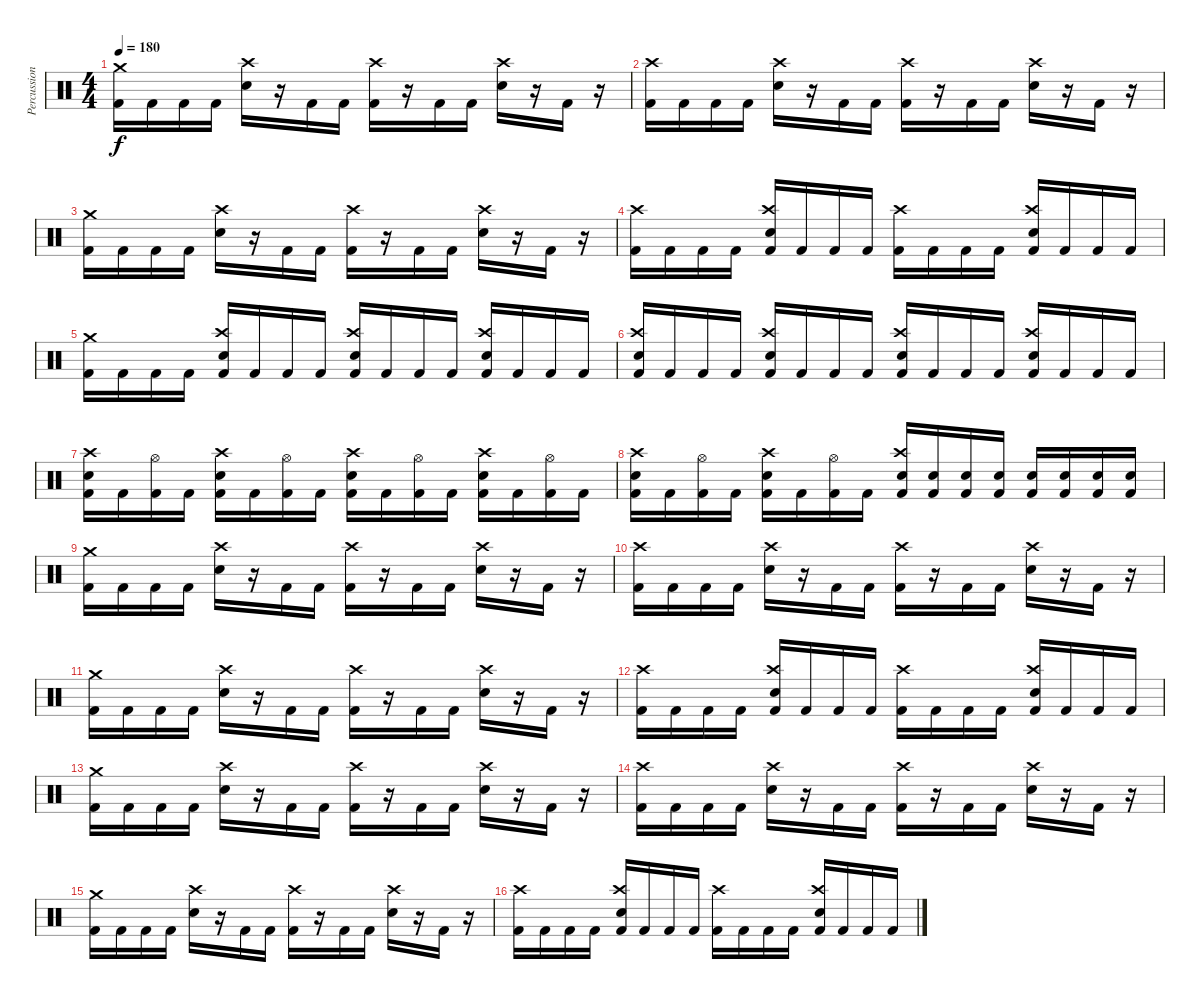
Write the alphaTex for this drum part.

\track ("Percussions" "Percussion") {instrument percussion}
\staff {score}
\articulation defaults
\ts (4 4)
\tempo 180
\clef neutral
\ks c
("Crash medium (hit)" "Kick (hit) 2").16{dy f} "Kick (hit) 2".16 "Kick (hit) 2".16 "Kick (hit) 2".16 ("Crash high (hit)" "Snare (hit) 2").16 r.16 "Kick (hit) 2".16 "Kick (hit) 2".16 ("Crash high (hit)" "Kick (hit) 2").16 r.16 "Kick (hit) 2".16 "Kick (hit) 2".16 ("Crash high (hit)" "Snare (hit) 2").16 r.16 "Kick (hit) 2".16 r.16 |
("Crash high (hit)" "Kick (hit) 2").16 "Kick (hit) 2".16 "Kick (hit) 2".16 "Kick (hit) 2".16 ("Crash high (hit)" "Snare (hit) 2").16 r.16 "Kick (hit) 2".16 "Kick (hit) 2".16 ("Crash high (hit)" "Kick (hit) 2").16 r.16 "Kick (hit) 2".16 "Kick (hit) 2".16 ("Crash high (hit)" "Snare (hit) 2").16 r.16 "Kick (hit) 2".16 r.16 |
("Crash medium (hit)" "Kick (hit) 2").16 "Kick (hit) 2".16 "Kick (hit) 2".16 "Kick (hit) 2".16 ("Crash high (hit)" "Snare (hit) 2").16 r.16 "Kick (hit) 2".16 "Kick (hit) 2".16 ("Crash high (hit)" "Kick (hit) 2").16 r.16 "Kick (hit) 2".16 "Kick (hit) 2".16 ("Crash high (hit)" "Snare (hit) 2").16 r.16 "Kick (hit) 2".16 r.16 |
("Crash high (hit)" "Kick (hit) 2").16 "Kick (hit) 2".16 "Kick (hit) 2".16 "Kick (hit) 2".16 ("Crash high (hit)" "Snare (hit) 2" "Kick (hit) 2").16 "Kick (hit) 2".16 "Kick (hit) 2".16 "Kick (hit) 2".16 ("Crash high (hit)" "Kick (hit) 2").16 "Kick (hit) 2".16 "Kick (hit) 2".16 "Kick (hit) 2".16 ("Crash high (hit)" "Snare (hit) 2" "Kick (hit) 2").16 "Kick (hit) 2".16 "Kick (hit) 2".16 "Kick (hit) 2".16 |
("Crash medium (hit)" "Kick (hit) 2").16 "Kick (hit) 2".16 "Kick (hit) 2".16 "Kick (hit) 2".16 ("Crash high (hit)" "Snare (hit) 2" "Kick (hit) 2").16 "Kick (hit) 2".16 "Kick (hit) 2".16 "Kick (hit) 2".16 ("Crash high (hit)" "Snare (hit) 2" "Kick (hit) 2").16 "Kick (hit) 2".16 "Kick (hit) 2".16 "Kick (hit) 2".16 ("Crash high (hit)" "Snare (hit) 2" "Kick (hit) 2").16 "Kick (hit) 2".16 "Kick (hit) 2".16 "Kick (hit) 2".16 |
("Crash high (hit)" "Snare (hit) 2" "Kick (hit) 2").16 "Kick (hit) 2".16 "Kick (hit) 2".16 "Kick (hit) 2".16 ("Crash high (hit)" "Snare (hit) 2" "Kick (hit) 2").16 "Kick (hit) 2".16 "Kick (hit) 2".16 "Kick (hit) 2".16 ("Crash high (hit)" "Snare (hit) 2" "Kick (hit) 2").16 "Kick (hit) 2".16 "Kick (hit) 2".16 "Kick (hit) 2".16 ("Crash high (hit)" "Snare (hit) 2" "Kick (hit) 2").16 "Kick (hit) 2".16 "Kick (hit) 2".16 "Kick (hit) 2".16 |
("Crash high (hit)" "Snare (hit) 2" "Kick (hit) 2").16 "Kick (hit) 2".16 ("Hi-Hat (open)" "Kick (hit) 2").16 "Kick (hit) 2".16 ("Crash high (hit)" "Snare (hit) 2" "Kick (hit) 2").16 "Kick (hit) 2".16 ("Hi-Hat (open)" "Kick (hit) 2").16 "Kick (hit) 2".16 ("Crash high (hit)" "Snare (hit) 2" "Kick (hit) 2").16 "Kick (hit) 2".16 ("Hi-Hat (open)" "Kick (hit) 2").16 "Kick (hit) 2".16 ("Crash high (hit)" "Snare (hit) 2" "Kick (hit) 2").16 "Kick (hit) 2".16 ("Hi-Hat (open)" "Kick (hit) 2").16 "Kick (hit) 2".16 |
("Crash high (hit)" "Snare (hit) 2" "Kick (hit) 2").16 "Kick (hit) 2".16 ("Hi-Hat (open)" "Kick (hit) 2").16 "Kick (hit) 2".16 ("Crash high (hit)" "Snare (hit) 2" "Kick (hit) 2").16 "Kick (hit) 2".16 ("Hi-Hat (open)" "Kick (hit) 2").16 "Kick (hit) 2".16 ("Crash high (hit)" "Snare (hit) 2" "Kick (hit) 2").16 ("Snare (hit) 2" "Kick (hit) 2").16 ("Snare (hit) 2" "Kick (hit) 2").16 ("Snare (hit) 2" "Kick (hit) 2").16 ("Snare (hit) 2" "Kick (hit) 2").16 ("Snare (hit) 2" "Kick (hit) 2").16 ("Snare (hit) 2" "Kick (hit) 2").16 ("Snare (hit) 2" "Kick (hit) 2").16 |
("Crash medium (hit)" "Kick (hit) 2").16 "Kick (hit) 2".16 "Kick (hit) 2".16 "Kick (hit) 2".16 ("Crash high (hit)" "Snare (hit) 2").16 r.16 "Kick (hit) 2".16 "Kick (hit) 2".16 ("Crash high (hit)" "Kick (hit) 2").16 r.16 "Kick (hit) 2".16 "Kick (hit) 2".16 ("Crash high (hit)" "Snare (hit) 2").16 r.16 "Kick (hit) 2".16 r.16 |
("Crash high (hit)" "Kick (hit) 2").16 "Kick (hit) 2".16 "Kick (hit) 2".16 "Kick (hit) 2".16 ("Crash high (hit)" "Snare (hit) 2").16 r.16 "Kick (hit) 2".16 "Kick (hit) 2".16 ("Crash high (hit)" "Kick (hit) 2").16 r.16 "Kick (hit) 2".16 "Kick (hit) 2".16 ("Crash high (hit)" "Snare (hit) 2").16 r.16 "Kick (hit) 2".16 r.16 |
("Crash medium (hit)" "Kick (hit) 2").16 "Kick (hit) 2".16 "Kick (hit) 2".16 "Kick (hit) 2".16 ("Crash high (hit)" "Snare (hit) 2").16 r.16 "Kick (hit) 2".16 "Kick (hit) 2".16 ("Crash high (hit)" "Kick (hit) 2").16 r.16 "Kick (hit) 2".16 "Kick (hit) 2".16 ("Crash high (hit)" "Snare (hit) 2").16 r.16 "Kick (hit) 2".16 r.16 |
("Crash high (hit)" "Kick (hit) 2").16 "Kick (hit) 2".16 "Kick (hit) 2".16 "Kick (hit) 2".16 ("Crash high (hit)" "Snare (hit) 2" "Kick (hit) 2").16 "Kick (hit) 2".16 "Kick (hit) 2".16 "Kick (hit) 2".16 ("Crash high (hit)" "Kick (hit) 2").16 "Kick (hit) 2".16 "Kick (hit) 2".16 "Kick (hit) 2".16 ("Crash high (hit)" "Snare (hit) 2" "Kick (hit) 2").16 "Kick (hit) 2".16 "Kick (hit) 2".16 "Kick (hit) 2".16 |
("Crash medium (hit)" "Kick (hit) 2").16 "Kick (hit) 2".16 "Kick (hit) 2".16 "Kick (hit) 2".16 ("Crash high (hit)" "Snare (hit) 2").16 r.16 "Kick (hit) 2".16 "Kick (hit) 2".16 ("Crash high (hit)" "Kick (hit) 2").16 r.16 "Kick (hit) 2".16 "Kick (hit) 2".16 ("Crash high (hit)" "Snare (hit) 2").16 r.16 "Kick (hit) 2".16 r.16 |
("Crash high (hit)" "Kick (hit) 2").16 "Kick (hit) 2".16 "Kick (hit) 2".16 "Kick (hit) 2".16 ("Crash high (hit)" "Snare (hit) 2").16 r.16 "Kick (hit) 2".16 "Kick (hit) 2".16 ("Crash high (hit)" "Kick (hit) 2").16 r.16 "Kick (hit) 2".16 "Kick (hit) 2".16 ("Crash high (hit)" "Snare (hit) 2").16 r.16 "Kick (hit) 2".16 r.16 |
("Crash medium (hit)" "Kick (hit) 2").16 "Kick (hit) 2".16 "Kick (hit) 2".16 "Kick (hit) 2".16 ("Crash high (hit)" "Snare (hit) 2").16 r.16 "Kick (hit) 2".16 "Kick (hit) 2".16 ("Crash high (hit)" "Kick (hit) 2").16 r.16 "Kick (hit) 2".16 "Kick (hit) 2".16 ("Crash high (hit)" "Snare (hit) 2").16 r.16 "Kick (hit) 2".16 r.16 |
("Crash high (hit)" "Kick (hit) 2").16 "Kick (hit) 2".16 "Kick (hit) 2".16 "Kick (hit) 2".16 ("Crash high (hit)" "Snare (hit) 2" "Kick (hit) 2").16 "Kick (hit) 2".16 "Kick (hit) 2".16 "Kick (hit) 2".16 ("Crash high (hit)" "Kick (hit) 2").16 "Kick (hit) 2".16 "Kick (hit) 2".16 "Kick (hit) 2".16 ("Crash high (hit)" "Snare (hit) 2" "Kick (hit) 2").16 "Kick (hit) 2".16 "Kick (hit) 2".16 "Kick (hit) 2".16
